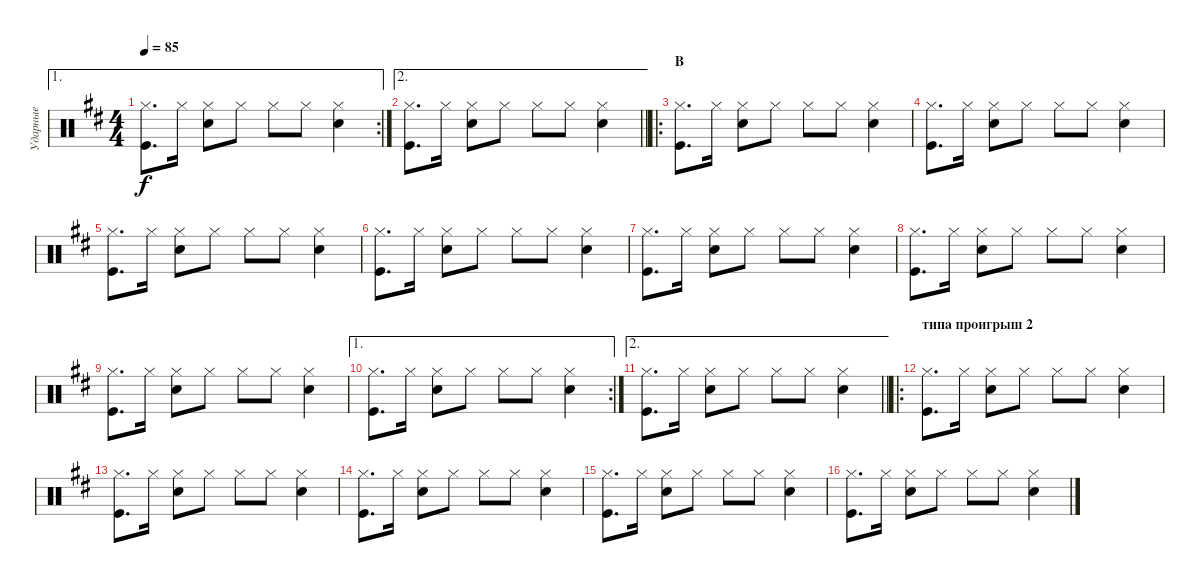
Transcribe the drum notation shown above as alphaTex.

\track ("Ударные" "Ударные") {instrument percussion}
\staff {score}
\articulation defaults
\ae 1
\rc 2
\ts (4 4)
\tempo 85
\clef neutral
\ks d
("Hi-Hat (closed)" "Kick (hit)").8{d dy f} "Hi-Hat (closed)".16 ("Hi-Hat (closed)" "Snare (hit) 2").8 "Hi-Hat (closed)".8 "Hi-Hat (closed)".8 "Hi-Hat (closed)".8 ("Hi-Hat (closed)" "Snare (hit) 2").4 |
\ae 2
\barLineRight lightlight
("Hi-Hat (closed)" "Kick (hit)").8{d} "Hi-Hat (closed)".16 ("Hi-Hat (closed)" "Snare (hit) 2").8 "Hi-Hat (closed)".8 "Hi-Hat (closed)".8 "Hi-Hat (closed)".8 ("Hi-Hat (closed)" "Snare (hit) 2").4 |
\ro
\section ("" "B")
("Hi-Hat (closed)" "Kick (hit)").8{d} "Hi-Hat (closed)".16 ("Hi-Hat (closed)" "Snare (hit) 2").8 "Hi-Hat (closed)".8 "Hi-Hat (closed)".8 "Hi-Hat (closed)".8 ("Hi-Hat (closed)" "Snare (hit) 2").4 |
("Hi-Hat (closed)" "Kick (hit)").8{d} "Hi-Hat (closed)".16 ("Hi-Hat (closed)" "Snare (hit) 2").8 "Hi-Hat (closed)".8 "Hi-Hat (closed)".8 "Hi-Hat (closed)".8 ("Hi-Hat (closed)" "Snare (hit) 2").4 |
("Hi-Hat (closed)" "Kick (hit)").8{d} "Hi-Hat (closed)".16 ("Hi-Hat (closed)" "Snare (hit) 2").8 "Hi-Hat (closed)".8 "Hi-Hat (closed)".8 "Hi-Hat (closed)".8 ("Hi-Hat (closed)" "Snare (hit) 2").4 |
("Hi-Hat (closed)" "Kick (hit)").8{d} "Hi-Hat (closed)".16 ("Hi-Hat (closed)" "Snare (hit) 2").8 "Hi-Hat (closed)".8 "Hi-Hat (closed)".8 "Hi-Hat (closed)".8 ("Hi-Hat (closed)" "Snare (hit) 2").4 |
("Hi-Hat (closed)" "Kick (hit)").8{d} "Hi-Hat (closed)".16 ("Hi-Hat (closed)" "Snare (hit) 2").8 "Hi-Hat (closed)".8 "Hi-Hat (closed)".8 "Hi-Hat (closed)".8 ("Hi-Hat (closed)" "Snare (hit) 2").4 |
("Hi-Hat (closed)" "Kick (hit)").8{d} "Hi-Hat (closed)".16 ("Hi-Hat (closed)" "Snare (hit) 2").8 "Hi-Hat (closed)".8 "Hi-Hat (closed)".8 "Hi-Hat (closed)".8 ("Hi-Hat (closed)" "Snare (hit) 2").4 |
("Hi-Hat (closed)" "Kick (hit)").8{d} "Hi-Hat (closed)".16 ("Hi-Hat (closed)" "Snare (hit) 2").8 "Hi-Hat (closed)".8 "Hi-Hat (closed)".8 "Hi-Hat (closed)".8 ("Hi-Hat (closed)" "Snare (hit) 2").4 |
\ae 1
\rc 2
("Hi-Hat (closed)" "Kick (hit)").8{d} "Hi-Hat (closed)".16 ("Hi-Hat (closed)" "Snare (hit) 2").8 "Hi-Hat (closed)".8 "Hi-Hat (closed)".8 "Hi-Hat (closed)".8 ("Hi-Hat (closed)" "Snare (hit) 2").4 |
\ae 2
\barLineRight lightlight
("Hi-Hat (closed)" "Kick (hit)").8{d} "Hi-Hat (closed)".16 ("Hi-Hat (closed)" "Snare (hit) 2").8 "Hi-Hat (closed)".8 "Hi-Hat (closed)".8 "Hi-Hat (closed)".8 ("Hi-Hat (closed)" "Snare (hit) 2").4 |
\ro
\section ("" "типа проигрыш 2")
("Hi-Hat (closed)" "Kick (hit)").8{d} "Hi-Hat (closed)".16 ("Hi-Hat (closed)" "Snare (hit) 2").8 "Hi-Hat (closed)".8 "Hi-Hat (closed)".8 "Hi-Hat (closed)".8 ("Hi-Hat (closed)" "Snare (hit) 2").4 |
("Hi-Hat (closed)" "Kick (hit)").8{d} "Hi-Hat (closed)".16 ("Hi-Hat (closed)" "Snare (hit) 2").8 "Hi-Hat (closed)".8 "Hi-Hat (closed)".8 "Hi-Hat (closed)".8 ("Hi-Hat (closed)" "Snare (hit) 2").4 |
("Hi-Hat (closed)" "Kick (hit)").8{d} "Hi-Hat (closed)".16 ("Hi-Hat (closed)" "Snare (hit) 2").8 "Hi-Hat (closed)".8 "Hi-Hat (closed)".8 "Hi-Hat (closed)".8 ("Hi-Hat (closed)" "Snare (hit) 2").4 |
("Hi-Hat (closed)" "Kick (hit)").8{d} "Hi-Hat (closed)".16 ("Hi-Hat (closed)" "Snare (hit) 2").8 "Hi-Hat (closed)".8 "Hi-Hat (closed)".8 "Hi-Hat (closed)".8 ("Hi-Hat (closed)" "Snare (hit) 2").4 |
("Hi-Hat (closed)" "Kick (hit)").8{d} "Hi-Hat (closed)".16 ("Hi-Hat (closed)" "Snare (hit) 2").8 "Hi-Hat (closed)".8 "Hi-Hat (closed)".8 "Hi-Hat (closed)".8 ("Hi-Hat (closed)" "Snare (hit) 2").4
